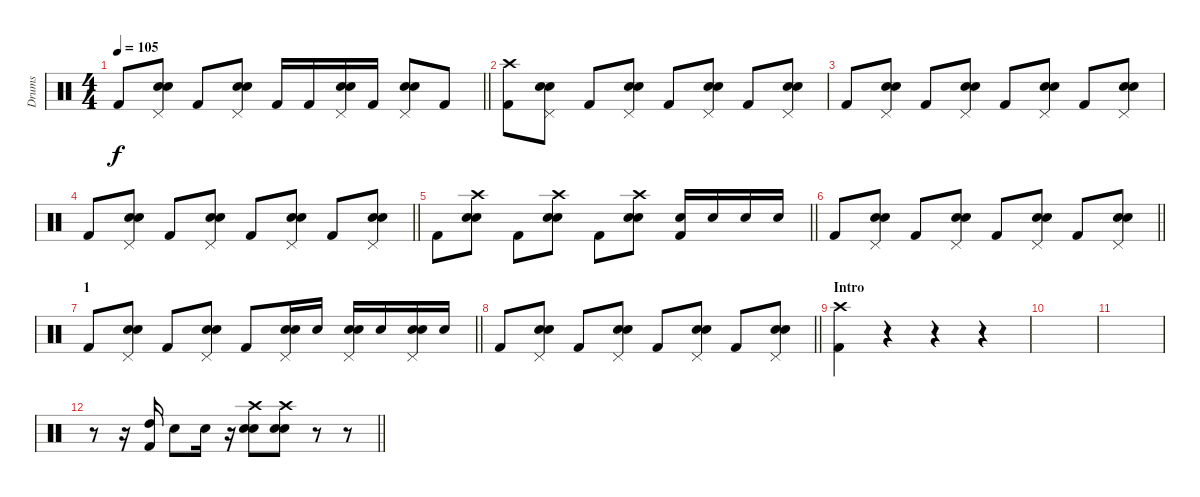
\track ("Drums" "Drums") {instrument percussion}
\staff {score}
\articulation defaults
\ts (4 4)
\tempo 105
\clef neutral
\barLineRight lightlight
\ks c "Kick (hit) 2".8{dy f}
("Pedal Hi-Hat (hit)" "Electric Snare (hit)" "Hand Clap (hit)").8 "Kick (hit) 2".8 ("Pedal Hi-Hat (hit)" "Electric Snare (hit)" "Hand Clap (hit)").8 "Kick (hit) 2".16 "Kick (hit) 2".16 ("Pedal Hi-Hat (hit)" "Electric Snare (hit)" "Hand Clap (hit)").16 "Kick (hit) 2".16 ("Pedal Hi-Hat (hit)" "Electric Snare (hit)" "Hand Clap (hit)").8 "Kick (hit) 2".8 |
("Crash high (hit)" "Kick (hit) 2").8 ("Pedal Hi-Hat (hit)" "Electric Snare (hit)" "Hand Clap (hit)").8 "Kick (hit) 2".8 ("Pedal Hi-Hat (hit)" "Electric Snare (hit)" "Hand Clap (hit)").8 "Kick (hit) 2".8 ("Pedal Hi-Hat (hit)" "Electric Snare (hit)" "Hand Clap (hit)").8 "Kick (hit) 2".8 ("Pedal Hi-Hat (hit)" "Electric Snare (hit)" "Hand Clap (hit)").8 |
"Kick (hit) 2".8 ("Pedal Hi-Hat (hit)" "Electric Snare (hit)" "Hand Clap (hit)").8 "Kick (hit) 2".8 ("Pedal Hi-Hat (hit)" "Electric Snare (hit)" "Hand Clap (hit)").8 "Kick (hit) 2".8 ("Pedal Hi-Hat (hit)" "Electric Snare (hit)" "Hand Clap (hit)").8 "Kick (hit) 2".8 ("Pedal Hi-Hat (hit)" "Electric Snare (hit)" "Hand Clap (hit)").8 |
\barLineRight lightlight "Kick (hit) 2".8
("Pedal Hi-Hat (hit)" "Electric Snare (hit)" "Hand Clap (hit)").8 "Kick (hit) 2".8 ("Pedal Hi-Hat (hit)" "Electric Snare (hit)" "Hand Clap (hit)").8 "Kick (hit) 2".8 ("Pedal Hi-Hat (hit)" "Electric Snare (hit)" "Hand Clap (hit)").8 "Kick (hit) 2".8 ("Pedal Hi-Hat (hit)" "Electric Snare (hit)" "Hand Clap (hit)").8 |
\barLineRight lightlight "Kick (hit) 2".8
("Crash high (hit)" "Electric Snare (hit)" "Hand Clap (hit)").8 "Kick (hit) 2".8 ("Crash high (hit)" "Electric Snare (hit)" "Hand Clap (hit)").8 "Kick (hit) 2".8 ("Crash high (hit)" "Electric Snare (hit)" "Hand Clap (hit)").8 ("Electric Snare (hit)" "Kick (hit) 2").16 "Electric Snare (hit)".16 "Electric Snare (hit)".16 "Electric Snare (hit)".16 |
\barLineRight lightlight "Kick (hit) 2".8
("Pedal Hi-Hat (hit)" "Electric Snare (hit)" "Hand Clap (hit)").8 "Kick (hit) 2".8 ("Pedal Hi-Hat (hit)" "Electric Snare (hit)" "Hand Clap (hit)").8 "Kick (hit) 2".8 ("Pedal Hi-Hat (hit)" "Electric Snare (hit)" "Hand Clap (hit)").8 "Kick (hit) 2".8 ("Pedal Hi-Hat (hit)" "Electric Snare (hit)" "Hand Clap (hit)").8 |
\section ("" "1")
\barLineRight lightlight "Kick (hit) 2".8
("Pedal Hi-Hat (hit)" "Electric Snare (hit)" "Hand Clap (hit)").8 "Kick (hit) 2".8 ("Pedal Hi-Hat (hit)" "Electric Snare (hit)" "Hand Clap (hit)").8 "Kick (hit) 2".8 ("Pedal Hi-Hat (hit)" "Electric Snare (hit)" "Hand Clap (hit)").16 "Electric Snare (hit)".16 ("Pedal Hi-Hat (hit)" "Electric Snare (hit)" "Hand Clap (hit)").16 "Electric Snare (hit)".16 ("Pedal Hi-Hat (hit)" "Electric Snare (hit)" "Hand Clap (hit)").16 "Electric Snare (hit)".16 |
\barLineRight lightlight "Kick (hit) 2".8
("Pedal Hi-Hat (hit)" "Electric Snare (hit)" "Hand Clap (hit)").8 "Kick (hit) 2".8 ("Pedal Hi-Hat (hit)" "Electric Snare (hit)" "Hand Clap (hit)").8 "Kick (hit) 2".8 ("Pedal Hi-Hat (hit)" "Electric Snare (hit)" "Hand Clap (hit)").8 "Kick (hit) 2".8 ("Pedal Hi-Hat (hit)" "Electric Snare (hit)" "Hand Clap (hit)").8 |
\section ("" "Intro")
("Crash high (hit)" "Kick (hit) 2").4 r.4 r.4 r.4 |
|
|
\barLineRight lightlight
r.8 r.16 ("High Tom (hit)" "Kick (hit) 2").16 "Electric Snare (hit)".8 "Electric Snare (hit)".16 r.16 ("Crash high (hit)" "Electric Snare (hit)" "Hand Clap (hit)").8 ("Crash high (hit)" "Electric Snare (hit)" "Hand Clap (hit)").8 r.8 r.8
